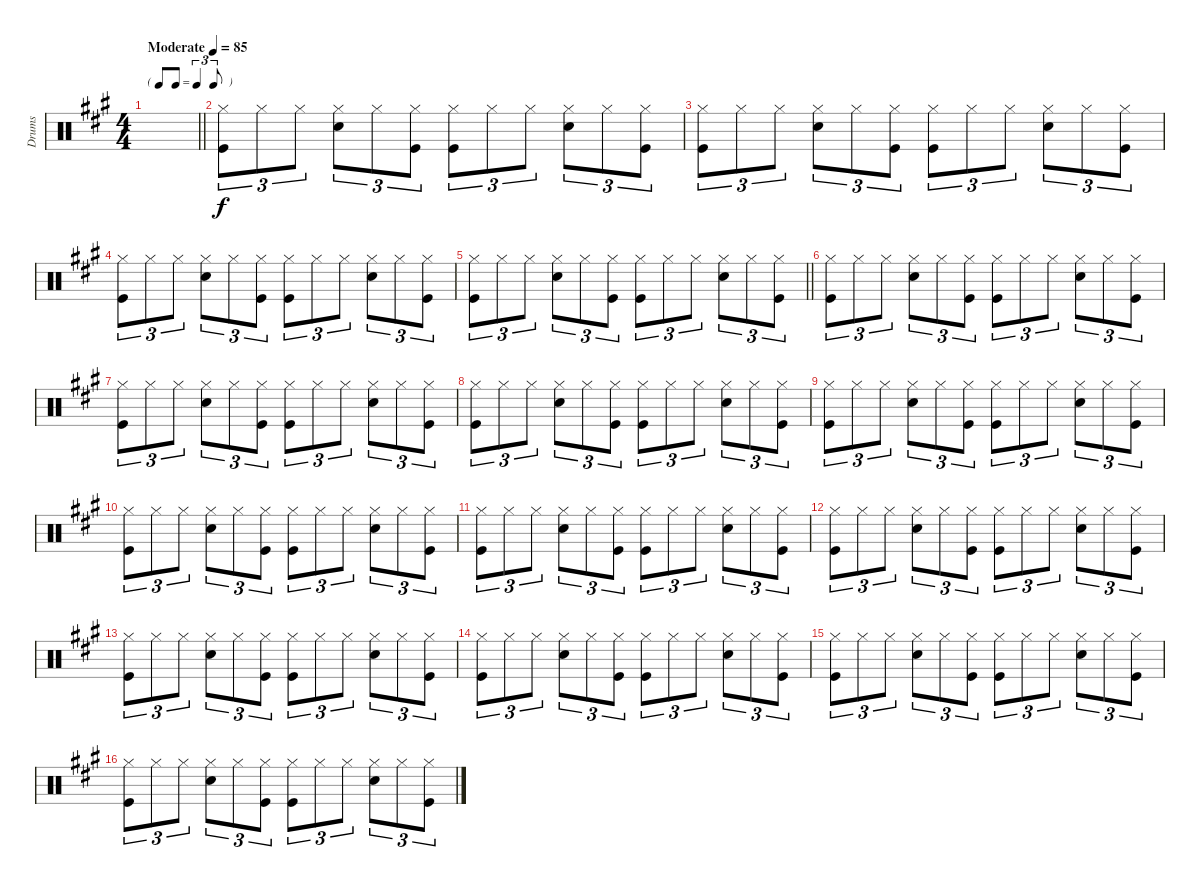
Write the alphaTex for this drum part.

\track ("Drums" "Drums") {instrument percussion}
\staff {score}
\articulation defaults
\ts (4 4)
\tf triplet8th
\tempo (85 "Moderate")
\clef neutral
\barLineRight lightlight
\ks a
|
("Hi-Hat (closed)" "Kick (hit)").8{tu (3 2)} "Hi-Hat (closed)".8{tu (3 2)} "Hi-Hat (closed)".8{tu (3 2)} ("Hi-Hat (closed)" "Snare (hit) 2").8{tu (3 2)} "Hi-Hat (closed)".8{tu (3 2)} ("Hi-Hat (closed)" "Kick (hit)").8{tu (3 2)} ("Kick (hit)" "Hi-Hat (closed)").8{tu (3 2)} "Hi-Hat (closed)".8{tu (3 2)} "Hi-Hat (closed)".8{tu (3 2)} ("Hi-Hat (closed)" "Snare (hit) 2").8{tu (3 2)} "Hi-Hat (closed)".8{tu (3 2)} ("Hi-Hat (closed)" "Kick (hit)").8{tu (3 2)} |
("Hi-Hat (closed)" "Kick (hit)").8{tu (3 2)} "Hi-Hat (closed)".8{tu (3 2)} "Hi-Hat (closed)".8{tu (3 2)} ("Hi-Hat (closed)" "Snare (hit) 2").8{tu (3 2)} "Hi-Hat (closed)".8{tu (3 2)} ("Hi-Hat (closed)" "Kick (hit)").8{tu (3 2)} ("Kick (hit)" "Hi-Hat (closed)").8{tu (3 2)} "Hi-Hat (closed)".8{tu (3 2)} "Hi-Hat (closed)".8{tu (3 2)} ("Hi-Hat (closed)" "Snare (hit) 2").8{tu (3 2)} "Hi-Hat (closed)".8{tu (3 2)} ("Hi-Hat (closed)" "Kick (hit)").8{tu (3 2)} |
("Hi-Hat (closed)" "Kick (hit)").8{tu (3 2)} "Hi-Hat (closed)".8{tu (3 2)} "Hi-Hat (closed)".8{tu (3 2)} ("Hi-Hat (closed)" "Snare (hit) 2").8{tu (3 2)} "Hi-Hat (closed)".8{tu (3 2)} ("Hi-Hat (closed)" "Kick (hit)").8{tu (3 2)} ("Kick (hit)" "Hi-Hat (closed)").8{tu (3 2)} "Hi-Hat (closed)".8{tu (3 2)} "Hi-Hat (closed)".8{tu (3 2)} ("Hi-Hat (closed)" "Snare (hit) 2").8{tu (3 2)} "Hi-Hat (closed)".8{tu (3 2)} ("Hi-Hat (closed)" "Kick (hit)").8{tu (3 2)} |
\barLineRight lightlight
("Hi-Hat (closed)" "Kick (hit)").8{tu (3 2)} "Hi-Hat (closed)".8{tu (3 2)} "Hi-Hat (closed)".8{tu (3 2)} ("Hi-Hat (closed)" "Snare (hit) 2").8{tu (3 2)} "Hi-Hat (closed)".8{tu (3 2)} ("Hi-Hat (closed)" "Kick (hit)").8{tu (3 2)} ("Kick (hit)" "Hi-Hat (closed)").8{tu (3 2)} "Hi-Hat (closed)".8{tu (3 2)} "Hi-Hat (closed)".8{tu (3 2)} ("Hi-Hat (closed)" "Snare (hit) 2").8{tu (3 2)} "Hi-Hat (closed)".8{tu (3 2)} ("Hi-Hat (closed)" "Kick (hit)").8{tu (3 2)} |
("Hi-Hat (closed)" "Kick (hit)").8{tu (3 2)} "Hi-Hat (closed)".8{tu (3 2)} "Hi-Hat (closed)".8{tu (3 2)} ("Hi-Hat (closed)" "Snare (hit) 2").8{tu (3 2)} "Hi-Hat (closed)".8{tu (3 2)} ("Hi-Hat (closed)" "Kick (hit)").8{tu (3 2)} ("Hi-Hat (closed)" "Kick (hit)").8{tu (3 2)} "Hi-Hat (closed)".8{tu (3 2)} "Hi-Hat (closed)".8{tu (3 2)} ("Hi-Hat (closed)" "Snare (hit) 2").8{tu (3 2)} "Hi-Hat (closed)".8{tu (3 2)} ("Hi-Hat (closed)" "Kick (hit)").8{tu (3 2)} |
("Hi-Hat (closed)" "Kick (hit)").8{tu (3 2)} "Hi-Hat (closed)".8{tu (3 2)} "Hi-Hat (closed)".8{tu (3 2)} ("Hi-Hat (closed)" "Snare (hit) 2").8{tu (3 2)} "Hi-Hat (closed)".8{tu (3 2)} ("Hi-Hat (closed)" "Kick (hit)").8{tu (3 2)} ("Hi-Hat (closed)" "Kick (hit)").8{tu (3 2)} "Hi-Hat (closed)".8{tu (3 2)} "Hi-Hat (closed)".8{tu (3 2)} ("Hi-Hat (closed)" "Snare (hit) 2").8{tu (3 2)} "Hi-Hat (closed)".8{tu (3 2)} ("Hi-Hat (closed)" "Kick (hit)").8{tu (3 2)} |
("Hi-Hat (closed)" "Kick (hit)").8{tu (3 2)} "Hi-Hat (closed)".8{tu (3 2)} "Hi-Hat (closed)".8{tu (3 2)} ("Hi-Hat (closed)" "Snare (hit) 2").8{tu (3 2)} "Hi-Hat (closed)".8{tu (3 2)} ("Hi-Hat (closed)" "Kick (hit)").8{tu (3 2)} ("Hi-Hat (closed)" "Kick (hit)").8{tu (3 2)} "Hi-Hat (closed)".8{tu (3 2)} "Hi-Hat (closed)".8{tu (3 2)} ("Hi-Hat (closed)" "Snare (hit) 2").8{tu (3 2)} "Hi-Hat (closed)".8{tu (3 2)} ("Hi-Hat (closed)" "Kick (hit)").8{tu (3 2)} |
("Hi-Hat (closed)" "Kick (hit)").8{tu (3 2)} "Hi-Hat (closed)".8{tu (3 2)} "Hi-Hat (closed)".8{tu (3 2)} ("Hi-Hat (closed)" "Snare (hit) 2").8{tu (3 2)} "Hi-Hat (closed)".8{tu (3 2)} ("Hi-Hat (closed)" "Kick (hit)").8{tu (3 2)} ("Hi-Hat (closed)" "Kick (hit)").8{tu (3 2)} "Hi-Hat (closed)".8{tu (3 2)} "Hi-Hat (closed)".8{tu (3 2)} ("Hi-Hat (closed)" "Snare (hit) 2").8{tu (3 2)} "Hi-Hat (closed)".8{tu (3 2)} ("Hi-Hat (closed)" "Kick (hit)").8{tu (3 2)} |
("Hi-Hat (closed)" "Kick (hit)").8{tu (3 2)} "Hi-Hat (closed)".8{tu (3 2)} "Hi-Hat (closed)".8{tu (3 2)} ("Hi-Hat (closed)" "Snare (hit) 2").8{tu (3 2)} "Hi-Hat (closed)".8{tu (3 2)} ("Hi-Hat (closed)" "Kick (hit)").8{tu (3 2)} ("Hi-Hat (closed)" "Kick (hit)").8{tu (3 2)} "Hi-Hat (closed)".8{tu (3 2)} "Hi-Hat (closed)".8{tu (3 2)} ("Hi-Hat (closed)" "Snare (hit) 2").8{tu (3 2)} "Hi-Hat (closed)".8{tu (3 2)} ("Hi-Hat (closed)" "Kick (hit)").8{tu (3 2)} |
("Hi-Hat (closed)" "Kick (hit)").8{tu (3 2)} "Hi-Hat (closed)".8{tu (3 2)} "Hi-Hat (closed)".8{tu (3 2)} ("Hi-Hat (closed)" "Snare (hit) 2").8{tu (3 2)} "Hi-Hat (closed)".8{tu (3 2)} ("Hi-Hat (closed)" "Kick (hit)").8{tu (3 2)} ("Hi-Hat (closed)" "Kick (hit)").8{tu (3 2)} "Hi-Hat (closed)".8{tu (3 2)} "Hi-Hat (closed)".8{tu (3 2)} ("Hi-Hat (closed)" "Snare (hit) 2").8{tu (3 2)} "Hi-Hat (closed)".8{tu (3 2)} ("Hi-Hat (closed)" "Kick (hit)").8{tu (3 2)} |
("Hi-Hat (closed)" "Kick (hit)").8{tu (3 2)} "Hi-Hat (closed)".8{tu (3 2)} "Hi-Hat (closed)".8{tu (3 2)} ("Hi-Hat (closed)" "Snare (hit) 2").8{tu (3 2)} "Hi-Hat (closed)".8{tu (3 2)} ("Hi-Hat (closed)" "Kick (hit)").8{tu (3 2)} ("Hi-Hat (closed)" "Kick (hit)").8{tu (3 2)} "Hi-Hat (closed)".8{tu (3 2)} "Hi-Hat (closed)".8{tu (3 2)} ("Hi-Hat (closed)" "Snare (hit) 2").8{tu (3 2)} "Hi-Hat (closed)".8{tu (3 2)} ("Hi-Hat (closed)" "Kick (hit)").8{tu (3 2)} |
("Hi-Hat (closed)" "Kick (hit)").8{tu (3 2)} "Hi-Hat (closed)".8{tu (3 2)} "Hi-Hat (closed)".8{tu (3 2)} ("Hi-Hat (closed)" "Snare (hit) 2").8{tu (3 2)} "Hi-Hat (closed)".8{tu (3 2)} ("Hi-Hat (closed)" "Kick (hit)").8{tu (3 2)} ("Hi-Hat (closed)" "Kick (hit)").8{tu (3 2)} "Hi-Hat (closed)".8{tu (3 2)} "Hi-Hat (closed)".8{tu (3 2)} ("Hi-Hat (closed)" "Snare (hit) 2").8{tu (3 2)} "Hi-Hat (closed)".8{tu (3 2)} ("Hi-Hat (closed)" "Kick (hit)").8{tu (3 2)} |
("Hi-Hat (closed)" "Kick (hit)").8{tu (3 2)} "Hi-Hat (closed)".8{tu (3 2)} "Hi-Hat (closed)".8{tu (3 2)} ("Hi-Hat (closed)" "Snare (hit) 2").8{tu (3 2)} "Hi-Hat (closed)".8{tu (3 2)} ("Hi-Hat (closed)" "Kick (hit)").8{tu (3 2)} ("Hi-Hat (closed)" "Kick (hit)").8{tu (3 2)} "Hi-Hat (closed)".8{tu (3 2)} "Hi-Hat (closed)".8{tu (3 2)} ("Hi-Hat (closed)" "Snare (hit) 2").8{tu (3 2)} "Hi-Hat (closed)".8{tu (3 2)} ("Hi-Hat (closed)" "Kick (hit)").8{tu (3 2)} |
("Hi-Hat (closed)" "Kick (hit)").8{tu (3 2)} "Hi-Hat (closed)".8{tu (3 2)} "Hi-Hat (closed)".8{tu (3 2)} ("Hi-Hat (closed)" "Snare (hit) 2").8{tu (3 2)} "Hi-Hat (closed)".8{tu (3 2)} ("Hi-Hat (closed)" "Kick (hit)").8{tu (3 2)} ("Hi-Hat (closed)" "Kick (hit)").8{tu (3 2)} "Hi-Hat (closed)".8{tu (3 2)} "Hi-Hat (closed)".8{tu (3 2)} ("Hi-Hat (closed)" "Snare (hit) 2").8{tu (3 2)} "Hi-Hat (closed)".8{tu (3 2)} ("Hi-Hat (closed)" "Kick (hit)").8{tu (3 2)} |
("Hi-Hat (closed)" "Kick (hit)").8{tu (3 2)} "Hi-Hat (closed)".8{tu (3 2)} "Hi-Hat (closed)".8{tu (3 2)} ("Hi-Hat (closed)" "Snare (hit) 2").8{tu (3 2)} "Hi-Hat (closed)".8{tu (3 2)} ("Hi-Hat (closed)" "Kick (hit)").8{tu (3 2)} ("Hi-Hat (closed)" "Kick (hit)").8{tu (3 2)} "Hi-Hat (closed)".8{tu (3 2)} "Hi-Hat (closed)".8{tu (3 2)} ("Hi-Hat (closed)" "Snare (hit) 2").8{tu (3 2)} "Hi-Hat (closed)".8{tu (3 2)} ("Hi-Hat (closed)" "Kick (hit)").8{tu (3 2)}
